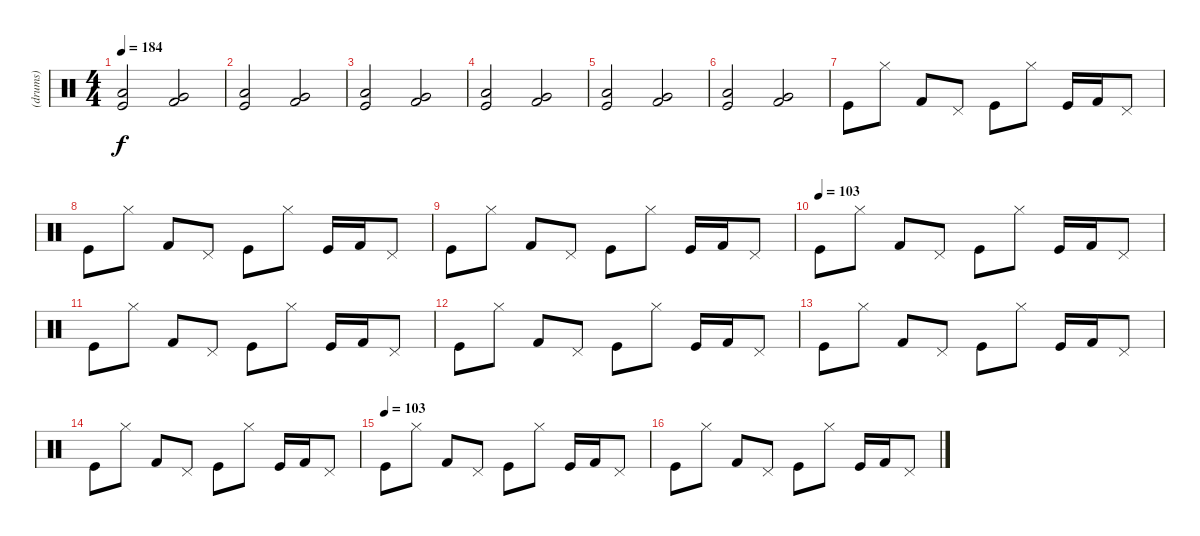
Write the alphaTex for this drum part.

\track ("(drums)" "(drums)") {instrument percussion}
\staff {score}
\articulation defaults
\ts (4 4)
\tempo 184
\clef neutral
\ks c
("Low Tom (hit)" "Kick (hit)").2{dy f} ("Very Low Tom (hit)" "Kick (hit) 2").2 |
("Low Tom (hit)" "Kick (hit)").2 ("Very Low Tom (hit)" "Kick (hit) 2").2 |
("Low Tom (hit)" "Kick (hit)").2 ("Very Low Tom (hit)" "Kick (hit) 2").2 |
("Low Tom (hit)" "Kick (hit)").2 ("Very Low Tom (hit)" "Kick (hit) 2").2 |
("Low Tom (hit)" "Kick (hit)").2 ("Very Low Tom (hit)" "Kick (hit) 2").2 |
("Low Tom (hit)" "Kick (hit)").2 ("Very Low Tom (hit)" "Kick (hit) 2").2 |
"Kick (hit)".8 "Hi-Hat (closed)".8 "Kick (hit) 2".8 "Pedal Hi-Hat (hit)".8 "Kick (hit)".8 "Hi-Hat (closed)".8 "Kick (hit)".16 "Kick (hit) 2".16 "Pedal Hi-Hat (hit)".8 |
"Kick (hit)".8 "Hi-Hat (closed)".8 "Kick (hit) 2".8 "Pedal Hi-Hat (hit)".8 "Kick (hit)".8 "Hi-Hat (closed)".8 "Kick (hit)".16 "Kick (hit) 2".16 "Pedal Hi-Hat (hit)".8 |
"Kick (hit)".8 "Hi-Hat (closed)".8 "Kick (hit) 2".8 "Pedal Hi-Hat (hit)".8 "Kick (hit)".8 "Hi-Hat (closed)".8 "Kick (hit)".16 "Kick (hit) 2".16 "Pedal Hi-Hat (hit)".8 |
\tempo (103)
"Kick (hit)".8 "Hi-Hat (closed)".8 "Kick (hit) 2".8 "Pedal Hi-Hat (hit)".8 "Kick (hit)".8 "Hi-Hat (closed)".8 "Kick (hit)".16 "Kick (hit) 2".16 "Pedal Hi-Hat (hit)".8 |
"Kick (hit)".8 "Hi-Hat (closed)".8 "Kick (hit) 2".8 "Pedal Hi-Hat (hit)".8 "Kick (hit)".8 "Hi-Hat (closed)".8 "Kick (hit)".16 "Kick (hit) 2".16 "Pedal Hi-Hat (hit)".8 |
"Kick (hit)".8 "Hi-Hat (closed)".8 "Kick (hit) 2".8 "Pedal Hi-Hat (hit)".8 "Kick (hit)".8 "Hi-Hat (closed)".8 "Kick (hit)".16 "Kick (hit) 2".16 "Pedal Hi-Hat (hit)".8 |
"Kick (hit)".8 "Hi-Hat (closed)".8 "Kick (hit) 2".8 "Pedal Hi-Hat (hit)".8 "Kick (hit)".8 "Hi-Hat (closed)".8 "Kick (hit)".16 "Kick (hit) 2".16 "Pedal Hi-Hat (hit)".8 |
"Kick (hit)".8 "Hi-Hat (closed)".8 "Kick (hit) 2".8 "Pedal Hi-Hat (hit)".8 "Kick (hit)".8 "Hi-Hat (closed)".8 "Kick (hit)".16 "Kick (hit) 2".16 "Pedal Hi-Hat (hit)".8 |
\tempo (103)
"Kick (hit)".8 "Hi-Hat (closed)".8 "Kick (hit) 2".8 "Pedal Hi-Hat (hit)".8 "Kick (hit)".8 "Hi-Hat (closed)".8 "Kick (hit)".16 "Kick (hit) 2".16 "Pedal Hi-Hat (hit)".8 |
"Kick (hit)".8 "Hi-Hat (closed)".8 "Kick (hit) 2".8 "Pedal Hi-Hat (hit)".8 "Kick (hit)".8 "Hi-Hat (closed)".8 "Kick (hit)".16 "Kick (hit) 2".16 "Pedal Hi-Hat (hit)".8
